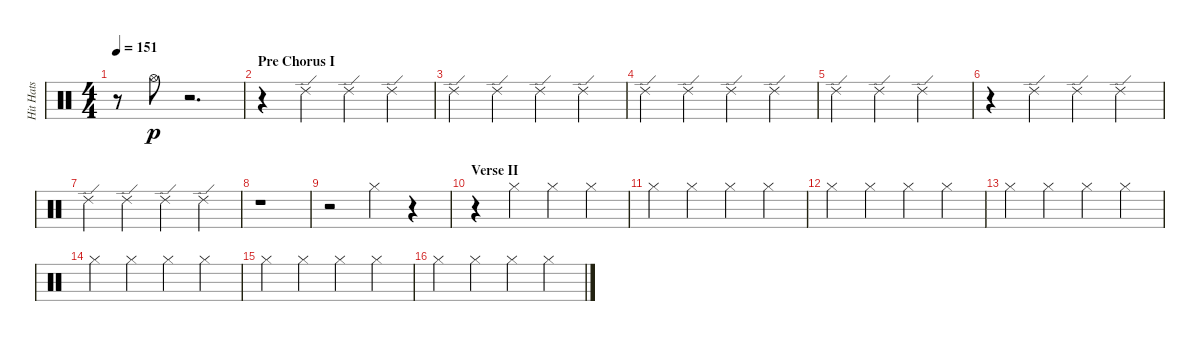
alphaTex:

\track ("Hit Hats" "Hit Hats") {instrument percussion}
\staff {score}
\articulation defaults
\ts (4 4)
\tempo 151
\clef neutral
\ks c
r.8{dy p} "Hi-Hat (open)".8 r.2{d} |
\section ("" "Pre Chorus I")
r.4 "Ride (edge) 2".4 "Ride (edge) 2".4 "Ride (edge) 2".4 |
"Ride (edge) 2".4 "Ride (edge) 2".4 "Ride (edge) 2".4 "Ride (edge) 2".4 |
"Ride (edge) 2".4 "Ride (edge) 2".4 "Ride (edge) 2".4 "Ride (edge) 2".4 |
"Ride (edge) 2".4 "Ride (edge) 2".4 "Ride (edge) 2".2 |
r.4 "Ride (edge) 2".4 "Ride (edge) 2".4 "Ride (edge) 2".4 |
"Ride (edge) 2".4 "Ride (edge) 2".4 "Ride (edge) 2".4 "Ride (edge) 2".4 |
r.1 |
r.2 "Hi-Hat (closed)".4 r.4 |
\section ("" "Verse II")
r.4 "Hi-Hat (closed)".4 "Hi-Hat (closed)".4 "Hi-Hat (closed)".4 |
"Hi-Hat (closed)".4 "Hi-Hat (closed)".4 "Hi-Hat (closed)".4 "Hi-Hat (closed)".4 |
"Hi-Hat (closed)".4 "Hi-Hat (closed)".4 "Hi-Hat (closed)".4 "Hi-Hat (closed)".4 |
"Hi-Hat (closed)".4 "Hi-Hat (closed)".4 "Hi-Hat (closed)".4 "Hi-Hat (closed)".4 |
"Hi-Hat (closed)".4 "Hi-Hat (closed)".4 "Hi-Hat (closed)".4 "Hi-Hat (closed)".4 |
"Hi-Hat (closed)".4 "Hi-Hat (closed)".4 "Hi-Hat (closed)".4 "Hi-Hat (closed)".4 |
"Hi-Hat (closed)".4 "Hi-Hat (closed)".4 "Hi-Hat (closed)".4 "Hi-Hat (closed)".4
